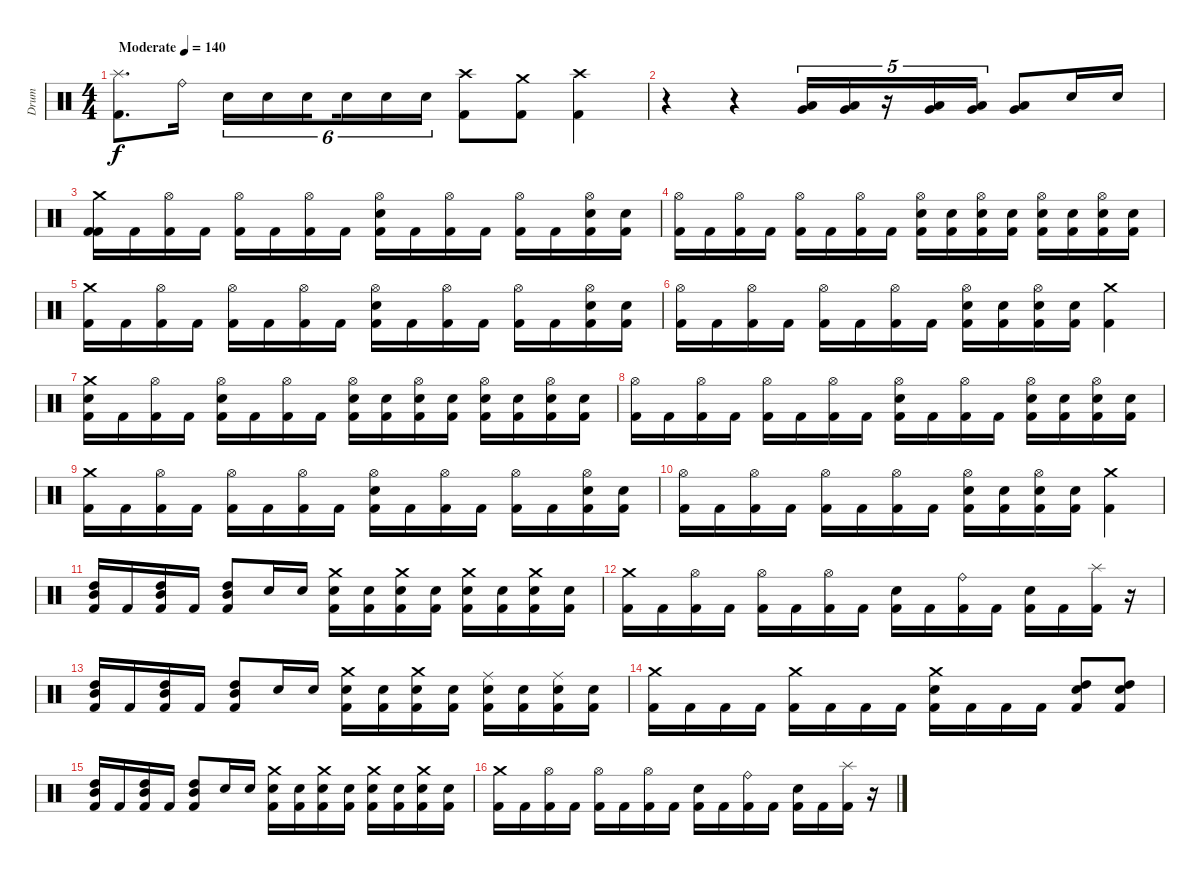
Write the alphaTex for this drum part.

\track ("Drum" "Drum") {instrument percussion}
\staff {score}
\articulation defaults
\ts (4 4)
\tempo (140 "Moderate")
\clef neutral
\ks c
("Splash (hit)" "Kick (hit) 2").8{d dy f} "Ride (bell)".16 "Snare (hit) 2".16{tu (6 4)} "Snare (hit) 2".16{tu (6 4)} "Snare (hit) 2".16{tu (6 4) beam splitsecondary} "Snare (hit) 2".16{tu (6 4)} "Snare (hit) 2".16{tu (6 4)} "Snare (hit) 2".16{tu (6 4)} ("Crash high (hit)" "Kick (hit) 2").8 ("Crash medium (hit)" "Kick (hit) 2").8 ("Crash high (hit)" "Kick (hit) 2").4 |
r.4 r.4 ("Low Floor Tom (hit)" "Very Low Tom (hit)").16{tu (5 4)} ("Very Low Tom (hit)" "Low Floor Tom (hit)").16{tu (5 4)} r.16{tu (5 4)} ("Very Low Tom (hit)" "Low Floor Tom (hit)").16{tu (5 4)} ("Very Low Tom (hit)" "Low Floor Tom (hit)").16{tu (5 4)} ("Low Tom (hit)" "Very Low Tom (hit)").8 "Snare (hit) 2".16 "Snare (hit) 2".16 |
("Crash medium (hit)" "Kick (hit) 2" "Kick (hit) 2").16 "Kick (hit) 2".16 ("Hi-Hat (open)" "Kick (hit) 2").16 "Kick (hit) 2".16 ("Hi-Hat (open)" "Kick (hit) 2").16 "Kick (hit) 2".16 ("Hi-Hat (open)" "Kick (hit) 2").16 "Kick (hit) 2".16 ("Hi-Hat (open)" "Snare (hit) 2" "Kick (hit) 2").16 "Kick (hit) 2".16 ("Hi-Hat (open)" "Kick (hit) 2").16 "Kick (hit) 2".16 ("Hi-Hat (open)" "Kick (hit) 2").16 "Kick (hit) 2".16 ("Hi-Hat (open)" "Snare (hit) 2" "Kick (hit) 2").16 ("Snare (hit) 2" "Kick (hit) 2").16 |
("Hi-Hat (open)" "Kick (hit) 2").16 "Kick (hit) 2".16 ("Hi-Hat (open)" "Kick (hit) 2").16 "Kick (hit) 2".16 ("Hi-Hat (open)" "Kick (hit) 2").16 "Kick (hit) 2".16 ("Hi-Hat (open)" "Kick (hit) 2").16 "Kick (hit) 2".16 ("Hi-Hat (open)" "Snare (hit) 2" "Kick (hit) 2").16 ("Snare (hit) 2" "Kick (hit) 2").16 ("Hi-Hat (open)" "Snare (hit) 2" "Kick (hit) 2").16 ("Snare (hit) 2" "Kick (hit) 2").16 ("Hi-Hat (open)" "Snare (hit) 2" "Kick (hit) 2").16 ("Snare (hit) 2" "Kick (hit) 2").16 ("Hi-Hat (open)" "Snare (hit) 2" "Kick (hit) 2").16 ("Snare (hit) 2" "Kick (hit) 2").16 |
("Crash medium (hit)" "Kick (hit) 2").16 "Kick (hit) 2".16 ("Hi-Hat (open)" "Kick (hit) 2").16 "Kick (hit) 2".16 ("Hi-Hat (open)" "Kick (hit) 2").16 "Kick (hit) 2".16 ("Hi-Hat (open)" "Kick (hit) 2").16 "Kick (hit) 2".16 ("Hi-Hat (open)" "Snare (hit) 2" "Kick (hit) 2").16 "Kick (hit) 2".16 ("Hi-Hat (open)" "Kick (hit) 2").16 "Kick (hit) 2".16 ("Hi-Hat (open)" "Kick (hit) 2").16 "Kick (hit) 2".16 ("Hi-Hat (open)" "Snare (hit) 2" "Kick (hit) 2").16 ("Snare (hit) 2" "Kick (hit) 2").16 |
("Hi-Hat (open)" "Kick (hit) 2").16 "Kick (hit) 2".16 ("Hi-Hat (open)" "Kick (hit) 2").16 "Kick (hit) 2".16 ("Hi-Hat (open)" "Kick (hit) 2").16 "Kick (hit) 2".16 ("Hi-Hat (open)" "Kick (hit) 2").16 "Kick (hit) 2".16 ("Hi-Hat (open)" "Snare (hit) 2" "Kick (hit) 2").16 ("Snare (hit) 2" "Kick (hit) 2").16 ("Hi-Hat (open)" "Snare (hit) 2" "Kick (hit) 2").16 ("Snare (hit) 2" "Kick (hit) 2").16 ("Crash medium (hit)" "Kick (hit) 2").4 |
("Crash medium (hit)" "Snare (hit) 2" "Kick (hit) 2").16 "Kick (hit) 2".16 ("Hi-Hat (open)" "Kick (hit) 2").16 "Kick (hit) 2".16 ("Hi-Hat (open)" "Snare (hit) 2" "Kick (hit) 2").16 "Kick (hit) 2".16 ("Hi-Hat (open)" "Kick (hit) 2").16 "Kick (hit) 2".16 ("Hi-Hat (open)" "Snare (hit) 2" "Kick (hit) 2").16 ("Snare (hit) 2" "Kick (hit) 2").16 ("Hi-Hat (open)" "Snare (hit) 2" "Kick (hit) 2").16 ("Snare (hit) 2" "Kick (hit) 2").16 ("Hi-Hat (open)" "Snare (hit) 2" "Kick (hit) 2").16 ("Snare (hit) 2" "Kick (hit) 2").16 ("Hi-Hat (open)" "Snare (hit) 2" "Kick (hit) 2").16 ("Snare (hit) 2" "Kick (hit) 2").16 |
("Hi-Hat (open)" "Kick (hit) 2").16 "Kick (hit) 2".16 ("Hi-Hat (open)" "Kick (hit) 2").16 "Kick (hit) 2".16 ("Hi-Hat (open)" "Kick (hit) 2").16 "Kick (hit) 2".16 ("Hi-Hat (open)" "Kick (hit) 2").16 "Kick (hit) 2".16 ("Hi-Hat (open)" "Snare (hit) 2" "Kick (hit) 2").16 "Kick (hit) 2".16 ("Hi-Hat (open)" "Kick (hit) 2").16 "Kick (hit) 2".16 ("Hi-Hat (open)" "Snare (hit) 2" "Kick (hit) 2").16 ("Snare (hit) 2" "Kick (hit) 2").16 ("Hi-Hat (open)" "Snare (hit) 2" "Kick (hit) 2").16 ("Snare (hit) 2" "Kick (hit) 2").16 |
("Crash medium (hit)" "Kick (hit) 2").16 "Kick (hit) 2".16 ("Hi-Hat (open)" "Kick (hit) 2").16 "Kick (hit) 2".16 ("Hi-Hat (open)" "Kick (hit) 2").16 "Kick (hit) 2".16 ("Hi-Hat (open)" "Kick (hit) 2").16 "Kick (hit) 2".16 ("Hi-Hat (open)" "Snare (hit) 2" "Kick (hit) 2").16 "Kick (hit) 2".16 ("Hi-Hat (open)" "Kick (hit) 2").16 "Kick (hit) 2".16 ("Hi-Hat (open)" "Kick (hit) 2").16 "Kick (hit) 2".16 ("Hi-Hat (open)" "Snare (hit) 2" "Kick (hit) 2").16 ("Snare (hit) 2" "Kick (hit) 2").16 |
("Hi-Hat (open)" "Kick (hit) 2").16 "Kick (hit) 2".16 ("Hi-Hat (open)" "Kick (hit) 2").16 "Kick (hit) 2".16 ("Hi-Hat (open)" "Kick (hit) 2").16 "Kick (hit) 2".16 ("Hi-Hat (open)" "Kick (hit) 2").16 "Kick (hit) 2".16 ("Hi-Hat (open)" "Snare (hit) 2" "Kick (hit) 2").16 ("Snare (hit) 2" "Kick (hit) 2").16 ("Hi-Hat (open)" "Snare (hit) 2" "Kick (hit) 2").16 ("Snare (hit) 2" "Kick (hit) 2").16 ("Crash medium (hit)" "Kick (hit) 2").4 |
("Mid Tom (hit)" "High Tom (hit)" "Kick (hit) 2").16 "Kick (hit) 2".16 ("Mid Tom (hit)" "High Tom (hit)" "Kick (hit) 2").16 "Kick (hit) 2".16 ("Mid Tom (hit)" "High Tom (hit)" "Kick (hit) 2").8 "Snare (hit) 2".16 "Snare (hit) 2".16 ("Crash medium (hit)" "Snare (hit) 2" "Kick (hit) 2").16 ("Snare (hit) 2" "Kick (hit) 2").16 ("Crash medium (hit)" "Snare (hit) 2" "Kick (hit) 2").16 ("Snare (hit) 2" "Kick (hit) 2").16 ("Crash medium (hit)" "Snare (hit) 2" "Kick (hit) 2").16 ("Snare (hit) 2" "Kick (hit) 2").16 ("Crash medium (hit)" "Snare (hit) 2" "Kick (hit) 2").16 ("Snare (hit) 2" "Kick (hit) 2").16 |
("Crash medium (hit)" "Kick (hit) 2").16 "Kick (hit) 2".16 ("Hi-Hat (open)" "Kick (hit) 2").16 "Kick (hit) 2".16 ("Hi-Hat (open)" "Kick (hit) 2").16 "Kick (hit) 2".16 ("Hi-Hat (open)" "Kick (hit) 2").16 "Kick (hit) 2".16 ("Snare (hit) 2" "Kick (hit) 2").16 "Kick (hit) 2".16 ("Ride (bell)" "Kick (hit) 2").16 "Kick (hit) 2".16 ("Snare (hit) 2" "Kick (hit) 2").16 "Kick (hit) 2".16 ("Splash (hit)" "Kick (hit) 2").16 r.16 |
("Mid Tom (hit)" "High Tom (hit)" "Kick (hit) 2").16 "Kick (hit) 2".16 ("Mid Tom (hit)" "High Tom (hit)" "Kick (hit) 2").16 "Kick (hit) 2".16 ("Mid Tom (hit)" "High Tom (hit)" "Kick (hit) 2").8 "Snare (hit) 2".16 "Snare (hit) 2".16 ("Crash medium (hit)" "Snare (hit) 2" "Kick (hit) 2").16 ("Snare (hit) 2" "Kick (hit) 2").16 ("Crash medium (hit)" "Snare (hit) 2" "Kick (hit) 2").16 ("Snare (hit) 2" "Kick (hit) 2").16 ("Ride (middle)" "Snare (hit) 2" "Kick (hit) 2").16 ("Snare (hit) 2" "Kick (hit) 2").16 ("Ride (middle)" "Snare (hit) 2" "Kick (hit) 2").16 ("Snare (hit) 2" "Kick (hit) 2").16 |
("Crash medium (hit)" "Kick (hit) 2").16 "Kick (hit) 2".16 "Kick (hit) 2".16 "Kick (hit) 2".16 ("Crash medium (hit)" "Kick (hit) 2").16 "Kick (hit) 2".16 "Kick (hit) 2".16 "Kick (hit) 2".16 ("Crash medium (hit)" "Snare (hit) 2" "Kick (hit) 2").16 "Kick (hit) 2".16 "Kick (hit) 2".16 "Kick (hit) 2".16 ("High Tom (hit)" "Snare (hit) 2" "Kick (hit) 2").8 ("High Tom (hit)" "Snare (hit) 2" "Kick (hit) 2").8 |
("Mid Tom (hit)" "High Tom (hit)" "Kick (hit) 2").16 "Kick (hit) 2".16 ("Mid Tom (hit)" "High Tom (hit)" "Kick (hit) 2").16 "Kick (hit) 2".16 ("Mid Tom (hit)" "High Tom (hit)" "Kick (hit) 2").8 "Snare (hit) 2".16 "Snare (hit) 2".16 ("Crash medium (hit)" "Snare (hit) 2" "Kick (hit) 2").16 ("Snare (hit) 2" "Kick (hit) 2").16 ("Crash medium (hit)" "Snare (hit) 2" "Kick (hit) 2").16 ("Snare (hit) 2" "Kick (hit) 2").16 ("Crash medium (hit)" "Snare (hit) 2" "Kick (hit) 2").16 ("Snare (hit) 2" "Kick (hit) 2").16 ("Crash medium (hit)" "Snare (hit) 2" "Kick (hit) 2").16 ("Snare (hit) 2" "Kick (hit) 2").16 |
("Crash medium (hit)" "Kick (hit) 2").16 "Kick (hit) 2".16 ("Hi-Hat (open)" "Kick (hit) 2").16 "Kick (hit) 2".16 ("Hi-Hat (open)" "Kick (hit) 2").16 "Kick (hit) 2".16 ("Hi-Hat (open)" "Kick (hit) 2").16 "Kick (hit) 2".16 ("Snare (hit) 2" "Kick (hit) 2").16 "Kick (hit) 2".16 ("Ride (bell)" "Kick (hit) 2").16 "Kick (hit) 2".16 ("Snare (hit) 2" "Kick (hit) 2").16 "Kick (hit) 2".16 ("Splash (hit)" "Kick (hit) 2").16 r.16
